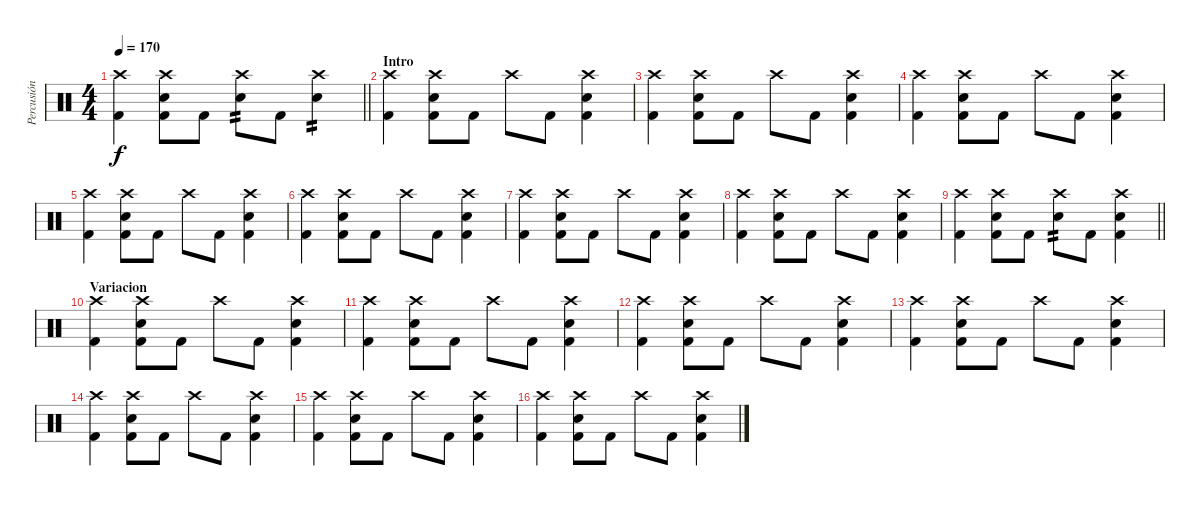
\track ("Percusión" "Percusión") {instrument percussion}
\staff {score}
\articulation defaults
\ts (4 4)
\tempo 170
\clef neutral
\barLineRight lightlight
\ks c
("Crash high (hit)" "Kick (hit) 2").4{dy f} ("Crash high (hit)" "Electric Snare (hit)" "Kick (hit) 2").8 "Kick (hit) 2".8 ("Crash high (hit)" "Electric Snare (hit)").8{tp 2} "Kick (hit) 2".8 ("Crash high (hit)" "Electric Snare (hit)").4{tp 2} |
\section ("" "Intro")
("Crash high (hit)" "Kick (hit) 2").4 ("Crash high (hit)" "Electric Snare (hit)" "Kick (hit) 2").8 "Kick (hit) 2".8 "Crash high (hit)".8 "Kick (hit) 2".8 ("Crash high (hit)" "Electric Snare (hit)" "Kick (hit) 2").4 |
("Crash high (hit)" "Kick (hit) 2").4 ("Crash high (hit)" "Electric Snare (hit)" "Kick (hit) 2").8 "Kick (hit) 2".8 "Crash high (hit)".8 "Kick (hit) 2".8 ("Crash high (hit)" "Electric Snare (hit)" "Kick (hit) 2").4 |
("Crash high (hit)" "Kick (hit) 2").4 ("Crash high (hit)" "Electric Snare (hit)" "Kick (hit) 2").8 "Kick (hit) 2".8 "Crash high (hit)".8 "Kick (hit) 2".8 ("Crash high (hit)" "Electric Snare (hit)" "Kick (hit) 2").4 |
("Crash high (hit)" "Kick (hit) 2").4 ("Crash high (hit)" "Electric Snare (hit)" "Kick (hit) 2").8 "Kick (hit) 2".8 "Crash high (hit)".8 "Kick (hit) 2".8 ("Crash high (hit)" "Electric Snare (hit)" "Kick (hit) 2").4 |
("Crash high (hit)" "Kick (hit) 2").4 ("Crash high (hit)" "Electric Snare (hit)" "Kick (hit) 2").8 "Kick (hit) 2".8 "Crash high (hit)".8 "Kick (hit) 2".8 ("Crash high (hit)" "Electric Snare (hit)" "Kick (hit) 2").4 |
("Crash high (hit)" "Kick (hit) 2").4 ("Crash high (hit)" "Electric Snare (hit)" "Kick (hit) 2").8 "Kick (hit) 2".8 "Crash high (hit)".8 "Kick (hit) 2".8 ("Crash high (hit)" "Electric Snare (hit)" "Kick (hit) 2").4 |
("Crash high (hit)" "Kick (hit) 2").4 ("Crash high (hit)" "Electric Snare (hit)" "Kick (hit) 2").8 "Kick (hit) 2".8 "Crash high (hit)".8 "Kick (hit) 2".8 ("Crash high (hit)" "Electric Snare (hit)" "Kick (hit) 2").4 |
\barLineRight lightlight
("Crash high (hit)" "Kick (hit) 2").4 ("Crash high (hit)" "Electric Snare (hit)" "Kick (hit) 2").8 "Kick (hit) 2".8 ("Crash high (hit)" "Electric Snare (hit)").8{tp 2} "Kick (hit) 2".8 ("Crash high (hit)" "Electric Snare (hit)" "Kick (hit) 2").4 |
\section ("" "Variacion")
("Crash high (hit)" "Kick (hit) 2").4 ("Crash high (hit)" "Electric Snare (hit)" "Kick (hit) 2").8 "Kick (hit) 2".8 "Crash high (hit)".8 "Kick (hit) 2".8 ("Crash high (hit)" "Electric Snare (hit)" "Kick (hit) 2").4 |
("Crash high (hit)" "Kick (hit) 2").4 ("Crash high (hit)" "Electric Snare (hit)" "Kick (hit) 2").8 "Kick (hit) 2".8 "Crash high (hit)".8 "Kick (hit) 2".8 ("Crash high (hit)" "Electric Snare (hit)" "Kick (hit) 2").4 |
("Crash high (hit)" "Kick (hit) 2").4 ("Crash high (hit)" "Electric Snare (hit)" "Kick (hit) 2").8 "Kick (hit) 2".8 "Crash high (hit)".8 "Kick (hit) 2".8 ("Crash high (hit)" "Electric Snare (hit)" "Kick (hit) 2").4 |
("Crash high (hit)" "Kick (hit) 2").4 ("Crash high (hit)" "Electric Snare (hit)" "Kick (hit) 2").8 "Kick (hit) 2".8 "Crash high (hit)".8 "Kick (hit) 2".8 ("Crash high (hit)" "Electric Snare (hit)" "Kick (hit) 2").4 |
("Crash high (hit)" "Kick (hit) 2").4 ("Crash high (hit)" "Electric Snare (hit)" "Kick (hit) 2").8 "Kick (hit) 2".8 "Crash high (hit)".8 "Kick (hit) 2".8 ("Crash high (hit)" "Electric Snare (hit)" "Kick (hit) 2").4 |
("Crash high (hit)" "Kick (hit) 2").4 ("Crash high (hit)" "Electric Snare (hit)" "Kick (hit) 2").8 "Kick (hit) 2".8 "Crash high (hit)".8 "Kick (hit) 2".8 ("Crash high (hit)" "Electric Snare (hit)" "Kick (hit) 2").4 |
("Crash high (hit)" "Kick (hit) 2").4 ("Crash high (hit)" "Electric Snare (hit)" "Kick (hit) 2").8 "Kick (hit) 2".8 "Crash high (hit)".8 "Kick (hit) 2".8 ("Crash high (hit)" "Electric Snare (hit)" "Kick (hit) 2").4
